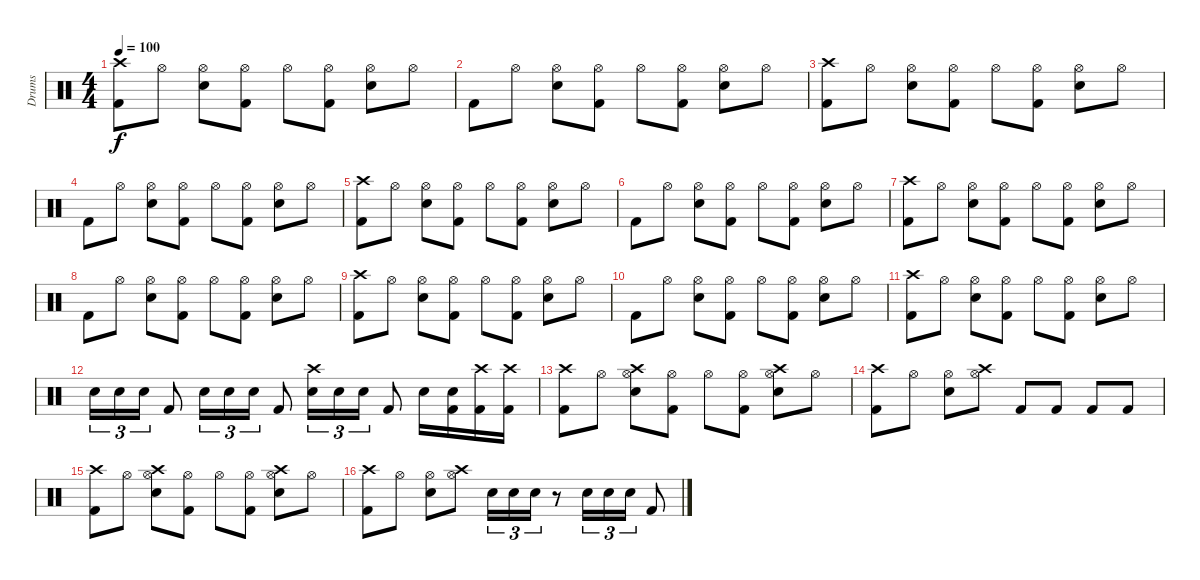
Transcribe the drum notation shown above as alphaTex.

\track ("Drums" "Drums") {instrument percussion}
\staff {score}
\articulation defaults
\ts (4 4)
\tempo 100
\clef neutral
\ks c
("Crash high (hit)" "Kick (hit) 2").8{dy f} "Hi-Hat (open)".8 ("Hi-Hat (open)" "Electric Snare (hit)").8 ("Hi-Hat (open)" "Kick (hit) 2").8 "Hi-Hat (open)".8 ("Hi-Hat (open)" "Kick (hit) 2").8 ("Hi-Hat (open)" "Electric Snare (hit)").8 "Hi-Hat (open)".8 |
"Kick (hit) 2".8 "Hi-Hat (open)".8 ("Hi-Hat (open)" "Electric Snare (hit)").8 ("Hi-Hat (open)" "Kick (hit) 2").8 "Hi-Hat (open)".8 ("Hi-Hat (open)" "Kick (hit) 2").8 ("Hi-Hat (open)" "Electric Snare (hit)").8 "Hi-Hat (open)".8 |
("Crash high (hit)" "Kick (hit) 2").8 "Hi-Hat (open)".8 ("Hi-Hat (open)" "Electric Snare (hit)").8 ("Hi-Hat (open)" "Kick (hit) 2").8 "Hi-Hat (open)".8 ("Hi-Hat (open)" "Kick (hit) 2").8 ("Hi-Hat (open)" "Electric Snare (hit)").8 "Hi-Hat (open)".8 |
"Kick (hit) 2".8 "Hi-Hat (open)".8 ("Hi-Hat (open)" "Electric Snare (hit)").8 ("Hi-Hat (open)" "Kick (hit) 2").8 "Hi-Hat (open)".8 ("Hi-Hat (open)" "Kick (hit) 2").8 ("Hi-Hat (open)" "Electric Snare (hit)").8 "Hi-Hat (open)".8 |
("Crash high (hit)" "Kick (hit) 2").8 "Hi-Hat (open)".8 ("Hi-Hat (open)" "Electric Snare (hit)").8 ("Hi-Hat (open)" "Kick (hit) 2").8 "Hi-Hat (open)".8 ("Hi-Hat (open)" "Kick (hit) 2").8 ("Hi-Hat (open)" "Electric Snare (hit)").8 "Hi-Hat (open)".8 |
"Kick (hit) 2".8 "Hi-Hat (open)".8 ("Hi-Hat (open)" "Electric Snare (hit)").8 ("Hi-Hat (open)" "Kick (hit) 2").8 "Hi-Hat (open)".8 ("Hi-Hat (open)" "Kick (hit) 2").8 ("Hi-Hat (open)" "Electric Snare (hit)").8 "Hi-Hat (open)".8 |
("Crash high (hit)" "Kick (hit) 2").8 "Hi-Hat (open)".8 ("Hi-Hat (open)" "Electric Snare (hit)").8 ("Hi-Hat (open)" "Kick (hit) 2").8 "Hi-Hat (open)".8 ("Hi-Hat (open)" "Kick (hit) 2").8 ("Hi-Hat (open)" "Electric Snare (hit)").8 "Hi-Hat (open)".8 |
"Kick (hit) 2".8 "Hi-Hat (open)".8 ("Hi-Hat (open)" "Electric Snare (hit)").8 ("Hi-Hat (open)" "Kick (hit) 2").8 "Hi-Hat (open)".8 ("Hi-Hat (open)" "Kick (hit) 2").8 ("Hi-Hat (open)" "Electric Snare (hit)").8 "Hi-Hat (open)".8 |
("Crash high (hit)" "Kick (hit) 2").8 "Hi-Hat (open)".8 ("Hi-Hat (open)" "Electric Snare (hit)").8 ("Hi-Hat (open)" "Kick (hit) 2").8 "Hi-Hat (open)".8 ("Hi-Hat (open)" "Kick (hit) 2").8 ("Hi-Hat (open)" "Electric Snare (hit)").8 "Hi-Hat (open)".8 |
"Kick (hit) 2".8 "Hi-Hat (open)".8 ("Hi-Hat (open)" "Electric Snare (hit)").8 ("Hi-Hat (open)" "Kick (hit) 2").8 "Hi-Hat (open)".8 ("Hi-Hat (open)" "Kick (hit) 2").8 ("Hi-Hat (open)" "Electric Snare (hit)").8 "Hi-Hat (open)".8 |
("Crash high (hit)" "Kick (hit) 2").8 "Hi-Hat (open)".8 ("Hi-Hat (open)" "Electric Snare (hit)").8 ("Hi-Hat (open)" "Kick (hit) 2").8 "Hi-Hat (open)".8 ("Hi-Hat (open)" "Kick (hit) 2").8 ("Hi-Hat (open)" "Electric Snare (hit)").8 "Hi-Hat (open)".8 |
"Electric Snare (hit)".16{tu (3 2)} "Electric Snare (hit)".16{tu (3 2)} "Electric Snare (hit)".16{tu (3 2)} "Kick (hit) 2".8 "Electric Snare (hit)".16{tu (3 2)} "Electric Snare (hit)".16{tu (3 2)} "Electric Snare (hit)".16{tu (3 2)} "Kick (hit) 2".8 ("Crash high (hit)" "Electric Snare (hit)").16{tu (3 2)} "Electric Snare (hit)".16{tu (3 2)} "Electric Snare (hit)".16{tu (3 2)} "Kick (hit) 2".8 "Electric Snare (hit)".16 ("Electric Snare (hit)" "Kick (hit) 2").16 ("Crash high (hit)" "Kick (hit) 2").16 ("Crash high (hit)" "Kick (hit) 2").16 |
("Crash high (hit)" "Kick (hit) 2").8 "Hi-Hat (open)".8 ("Crash high (hit)" "Hi-Hat (open)" "Electric Snare (hit)").8 ("Hi-Hat (open)" "Kick (hit) 2").8 "Hi-Hat (open)".8 ("Hi-Hat (open)" "Kick (hit) 2").8 ("Crash high (hit)" "Hi-Hat (open)" "Electric Snare (hit)").8 "Hi-Hat (open)".8 |
("Crash high (hit)" "Kick (hit) 2").8 "Hi-Hat (open)".8 ("Hi-Hat (open)" "Electric Snare (hit)").8 ("Crash high (hit)" "Hi-Hat (open)").8 "Kick (hit) 2".8 "Kick (hit) 2".8 "Kick (hit) 2".8 "Kick (hit) 2".8 |
("Crash high (hit)" "Kick (hit) 2").8 "Hi-Hat (open)".8 ("Crash high (hit)" "Hi-Hat (open)" "Electric Snare (hit)").8 ("Hi-Hat (open)" "Kick (hit) 2").8 "Hi-Hat (open)".8 ("Hi-Hat (open)" "Kick (hit) 2").8 ("Crash high (hit)" "Hi-Hat (open)" "Electric Snare (hit)").8 "Hi-Hat (open)".8 |
("Crash high (hit)" "Kick (hit) 2").8 "Hi-Hat (open)".8 ("Hi-Hat (open)" "Electric Snare (hit)").8 ("Crash high (hit)" "Hi-Hat (open)").8 "Electric Snare (hit)".16{tu (3 2)} "Electric Snare (hit)".16{tu (3 2)} "Electric Snare (hit)".16{tu (3 2)} r.8 "Electric Snare (hit)".16{tu (3 2)} "Electric Snare (hit)".16{tu (3 2)} "Electric Snare (hit)".16{tu (3 2)} "Kick (hit) 2".8
